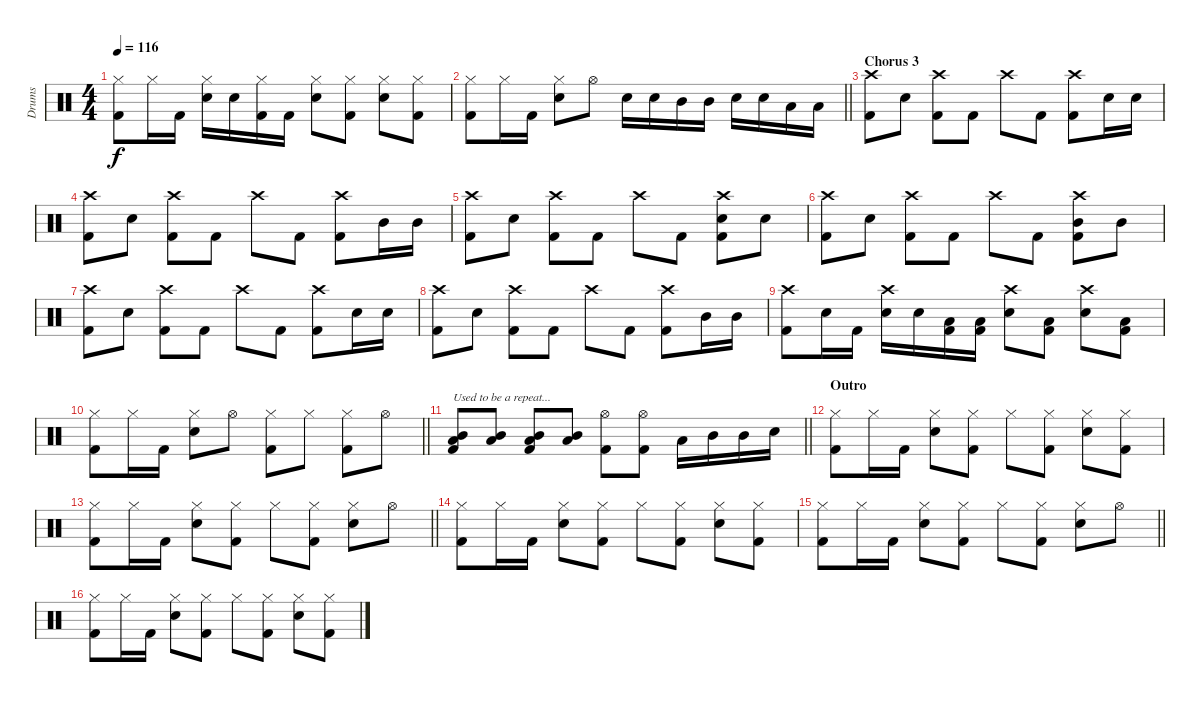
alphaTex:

\track ("Drums" "Drums") {instrument percussion}
\staff {score}
\articulation defaults
\ts (4 4)
\tempo 116
\clef neutral
\ks c
("Hi-Hat (closed)" "Kick (hit) 2").8{dy f} "Hi-Hat (closed)".16 "Kick (hit) 2".16 ("Hi-Hat (closed)" "Snare (hit) 2").16 "Snare (hit) 2".16 ("Hi-Hat (closed)" "Kick (hit) 2").16 "Kick (hit) 2".16 ("Hi-Hat (closed)" "Snare (hit) 2").8 ("Hi-Hat (closed)" "Kick (hit) 2").8 ("Hi-Hat (closed)" "Snare (hit) 2").8 ("Hi-Hat (closed)" "Kick (hit) 2").8 |
\barLineRight lightlight
("Hi-Hat (closed)" "Kick (hit) 2").8 "Hi-Hat (closed)".16 "Kick (hit) 2".16 ("Hi-Hat (closed)" "Snare (hit) 2").8 "Hi-Hat (open)".8 "Snare (hit) 2".16 "Snare (hit) 2".16 "Mid Tom (hit)".16 "Mid Tom (hit)".16 "Snare (hit) 2".16 "Snare (hit) 2".16 "Low Floor Tom (hit)".16 "Low Floor Tom (hit)".16 |
\section ("" "Chorus 3")
("Crash high (hit)" "Kick (hit) 2").8 "Snare (hit) 2".8 ("Crash high (hit)" "Kick (hit) 2").8 "Kick (hit) 2".8 "Crash high (hit)".8 "Kick (hit) 2".8 ("Crash high (hit)" "Kick (hit) 2").8 "Snare (hit) 2".16 "Snare (hit) 2".16 |
("Crash high (hit)" "Kick (hit) 2").8 "Snare (hit) 2".8 ("Crash high (hit)" "Kick (hit) 2").8 "Kick (hit) 2".8 "Crash high (hit)".8 "Kick (hit) 2".8 ("Crash high (hit)" "Kick (hit) 2").8 "Mid Tom (hit)".16 "Mid Tom (hit)".16 |
("Crash high (hit)" "Kick (hit) 2").8 "Snare (hit) 2".8 ("Crash high (hit)" "Kick (hit) 2").8 "Kick (hit) 2".8 "Crash high (hit)".8 "Kick (hit) 2".8 ("Crash high (hit)" "Snare (hit) 2" "Kick (hit) 2").8 "Snare (hit) 2".8 |
("Crash high (hit)" "Kick (hit) 2").8 "Snare (hit) 2".8 ("Crash high (hit)" "Kick (hit) 2").8 "Kick (hit) 2".8 "Crash high (hit)".8 "Kick (hit) 2".8 ("Crash high (hit)" "Mid Tom (hit)" "Kick (hit) 2").8 "Mid Tom (hit)".8 |
("Crash high (hit)" "Kick (hit) 2").8 "Snare (hit) 2".8 ("Crash high (hit)" "Kick (hit) 2").8 "Kick (hit) 2".8 "Crash high (hit)".8 "Kick (hit) 2".8 ("Crash high (hit)" "Kick (hit) 2").8 "Snare (hit) 2".16 "Snare (hit) 2".16 |
("Crash high (hit)" "Kick (hit) 2").8 "Snare (hit) 2".8 ("Crash high (hit)" "Kick (hit) 2").8 "Kick (hit) 2".8 "Crash high (hit)".8 "Kick (hit) 2".8 ("Crash high (hit)" "Kick (hit) 2").8 "Mid Tom (hit)".16 "Mid Tom (hit)".16 |
("Crash high (hit)" "Kick (hit) 2").8 "Snare (hit) 2".16 "Kick (hit) 2".16 ("Crash high (hit)" "Snare (hit) 2").16 "Snare (hit) 2".16 ("Low Floor Tom (hit)" "Kick (hit) 2").16 ("Low Floor Tom (hit)" "Kick (hit) 2").16 ("Crash high (hit)" "Snare (hit) 2").8 ("Low Floor Tom (hit)" "Kick (hit) 2").8 ("Crash high (hit)" "Snare (hit) 2").8 ("Low Floor Tom (hit)" "Kick (hit) 2").8 |
\barLineRight lightlight
("Hi-Hat (closed)" "Kick (hit) 2").8 "Hi-Hat (closed)".16 "Kick (hit) 2".16 ("Hi-Hat (closed)" "Snare (hit) 2").8 "Hi-Hat (open)".8 ("Hi-Hat (closed)" "Kick (hit) 2").8 "Hi-Hat (closed)".8 ("Hi-Hat (closed)" "Kick (hit) 2").8 "Hi-Hat (open)".8 |
\barLineRight lightlight
("Mid Tom (hit)" "Low Floor Tom (hit)" "Kick (hit) 2").8{txt "Used to be a repeat..."} ("Mid Tom (hit)" "Low Floor Tom (hit)").8 ("Mid Tom (hit)" "Low Floor Tom (hit)" "Kick (hit) 2").8 ("Mid Tom (hit)" "Low Floor Tom (hit)").8 ("Hi-Hat (open)" "Kick (hit) 2").8 ("Hi-Hat (open)" "Kick (hit) 2").8 "Low Floor Tom (hit)".16 "Mid Tom (hit)".16 "Mid Tom (hit)".16 "Snare (hit) 2".16 |
\section ("" "Outro")
("Hi-Hat (closed)" "Kick (hit) 2").8 "Hi-Hat (closed)".16 "Kick (hit) 2".16 ("Hi-Hat (closed)" "Snare (hit) 2").8 ("Hi-Hat (closed)" "Kick (hit) 2").8 "Hi-Hat (closed)".8 ("Hi-Hat (closed)" "Kick (hit) 2").8 ("Hi-Hat (closed)" "Snare (hit) 2").8 ("Hi-Hat (closed)" "Kick (hit) 2").8 |
\barLineRight lightlight
("Hi-Hat (closed)" "Kick (hit) 2").8 "Hi-Hat (closed)".16 "Kick (hit) 2".16 ("Hi-Hat (closed)" "Snare (hit) 2").8 ("Hi-Hat (closed)" "Kick (hit) 2").8 "Hi-Hat (closed)".8 ("Hi-Hat (closed)" "Kick (hit) 2").8 ("Hi-Hat (closed)" "Snare (hit) 2").8 "Hi-Hat (open)".8 |
("Hi-Hat (closed)" "Kick (hit) 2").8 "Hi-Hat (closed)".16 "Kick (hit) 2".16 ("Hi-Hat (closed)" "Snare (hit) 2").8 ("Hi-Hat (closed)" "Kick (hit) 2").8 "Hi-Hat (closed)".8 ("Hi-Hat (closed)" "Kick (hit) 2").8 ("Hi-Hat (closed)" "Snare (hit) 2").8 ("Hi-Hat (closed)" "Kick (hit) 2").8 |
\barLineRight lightlight
("Hi-Hat (closed)" "Kick (hit) 2").8 "Hi-Hat (closed)".16 "Kick (hit) 2".16 ("Hi-Hat (closed)" "Snare (hit) 2").8 ("Hi-Hat (closed)" "Kick (hit) 2").8 "Hi-Hat (closed)".8 ("Hi-Hat (closed)" "Kick (hit) 2").8 ("Hi-Hat (closed)" "Snare (hit) 2").8 "Hi-Hat (open)".8 |
("Hi-Hat (closed)" "Kick (hit) 2").8 "Hi-Hat (closed)".16 "Kick (hit) 2".16 ("Hi-Hat (closed)" "Snare (hit) 2").8 ("Hi-Hat (closed)" "Kick (hit) 2").8 "Hi-Hat (closed)".8 ("Hi-Hat (closed)" "Kick (hit) 2").8 ("Hi-Hat (closed)" "Snare (hit) 2").8 ("Hi-Hat (closed)" "Kick (hit) 2").8
